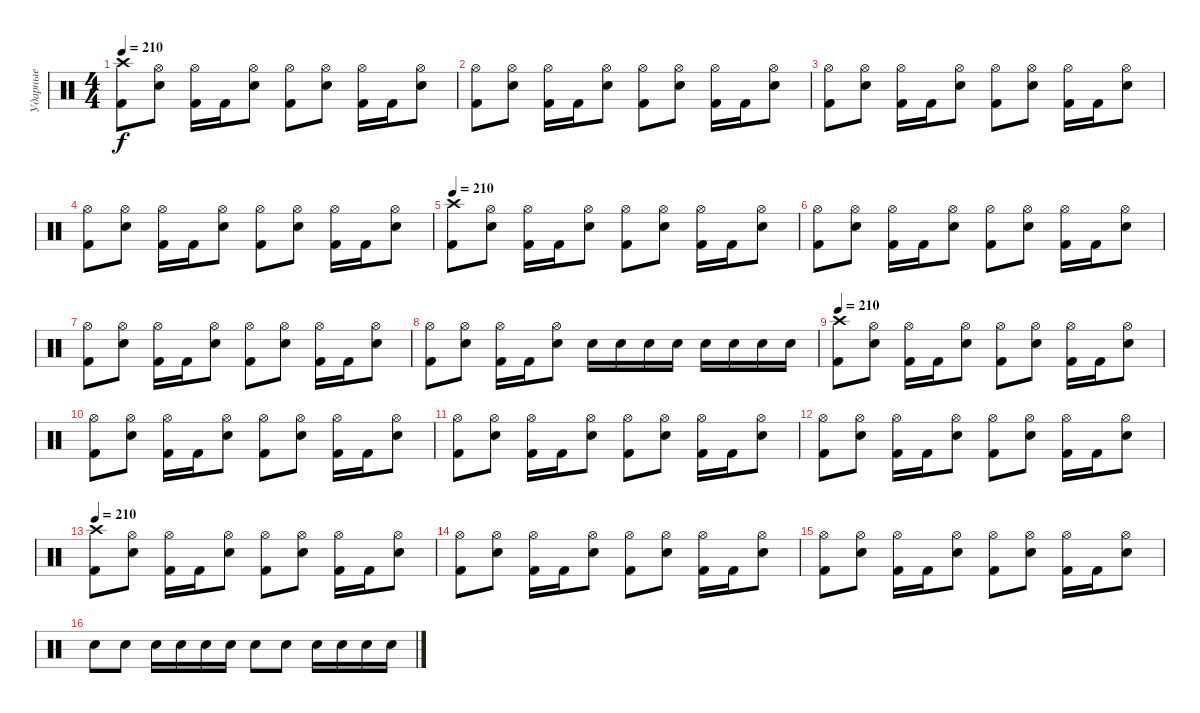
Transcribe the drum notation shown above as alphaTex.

\track ("Ударные" "Ударные") {instrument percussion}
\staff {score}
\articulation defaults
\ts (4 4)
\tempo 210
\clef neutral
\ks c
("Crash high (hit)" "Kick (hit) 2").8{dy f} ("Hi-Hat (open)" "Snare (hit) 2").8 ("Hi-Hat (open)" "Kick (hit) 2").16 "Kick (hit) 2".16 ("Hi-Hat (open)" "Snare (hit) 2").8 ("Hi-Hat (open)" "Kick (hit) 2").8 ("Hi-Hat (open)" "Snare (hit) 2").8 ("Hi-Hat (open)" "Kick (hit) 2").16 "Kick (hit) 2".16 ("Hi-Hat (open)" "Snare (hit) 2").8 |
("Hi-Hat (open)" "Kick (hit) 2").8 ("Hi-Hat (open)" "Snare (hit) 2").8 ("Hi-Hat (open)" "Kick (hit) 2").16 "Kick (hit) 2".16 ("Hi-Hat (open)" "Snare (hit) 2").8 ("Hi-Hat (open)" "Kick (hit) 2").8 ("Hi-Hat (open)" "Snare (hit) 2").8 ("Hi-Hat (open)" "Kick (hit) 2").16 "Kick (hit) 2".16 ("Hi-Hat (open)" "Snare (hit) 2").8 |
("Hi-Hat (open)" "Kick (hit) 2").8 ("Hi-Hat (open)" "Snare (hit) 2").8 ("Hi-Hat (open)" "Kick (hit) 2").16 "Kick (hit) 2".16 ("Hi-Hat (open)" "Snare (hit) 2").8 ("Hi-Hat (open)" "Kick (hit) 2").8 ("Hi-Hat (open)" "Snare (hit) 2").8 ("Hi-Hat (open)" "Kick (hit) 2").16 "Kick (hit) 2".16 ("Hi-Hat (open)" "Snare (hit) 2").8 |
("Hi-Hat (open)" "Kick (hit) 2").8 ("Hi-Hat (open)" "Snare (hit) 2").8 ("Hi-Hat (open)" "Kick (hit) 2").16 "Kick (hit) 2".16 ("Hi-Hat (open)" "Snare (hit) 2").8 ("Hi-Hat (open)" "Kick (hit) 2").8 ("Hi-Hat (open)" "Snare (hit) 2").8 ("Hi-Hat (open)" "Kick (hit) 2").16 "Kick (hit) 2".16 ("Hi-Hat (open)" "Snare (hit) 2").8 |
\tempo 210
("Crash high (hit)" "Kick (hit) 2").8 ("Hi-Hat (open)" "Snare (hit) 2").8 ("Hi-Hat (open)" "Kick (hit) 2").16 "Kick (hit) 2".16 ("Hi-Hat (open)" "Snare (hit) 2").8 ("Hi-Hat (open)" "Kick (hit) 2").8 ("Hi-Hat (open)" "Snare (hit) 2").8 ("Hi-Hat (open)" "Kick (hit) 2").16 "Kick (hit) 2".16 ("Hi-Hat (open)" "Snare (hit) 2").8 |
("Hi-Hat (open)" "Kick (hit) 2").8 ("Hi-Hat (open)" "Snare (hit) 2").8 ("Hi-Hat (open)" "Kick (hit) 2").16 "Kick (hit) 2".16 ("Hi-Hat (open)" "Snare (hit) 2").8 ("Hi-Hat (open)" "Kick (hit) 2").8 ("Hi-Hat (open)" "Snare (hit) 2").8 ("Hi-Hat (open)" "Kick (hit) 2").16 "Kick (hit) 2".16 ("Hi-Hat (open)" "Snare (hit) 2").8 |
("Hi-Hat (open)" "Kick (hit) 2").8 ("Hi-Hat (open)" "Snare (hit) 2").8 ("Hi-Hat (open)" "Kick (hit) 2").16 "Kick (hit) 2".16 ("Hi-Hat (open)" "Snare (hit) 2").8 ("Hi-Hat (open)" "Kick (hit) 2").8 ("Hi-Hat (open)" "Snare (hit) 2").8 ("Hi-Hat (open)" "Kick (hit) 2").16 "Kick (hit) 2".16 ("Hi-Hat (open)" "Snare (hit) 2").8 |
("Hi-Hat (open)" "Kick (hit) 2").8 ("Hi-Hat (open)" "Snare (hit) 2").8 ("Hi-Hat (open)" "Kick (hit) 2").16 "Kick (hit) 2".16 ("Hi-Hat (open)" "Snare (hit) 2").8 "Snare (hit) 2".16 "Snare (hit) 2".16 "Snare (hit) 2".16 "Snare (hit) 2".16 "Snare (hit) 2".16 "Snare (hit) 2".16 "Snare (hit) 2".16 "Snare (hit) 2".16 |
\tempo 210
("Crash high (hit)" "Kick (hit) 2").8 ("Hi-Hat (open)" "Snare (hit) 2").8 ("Hi-Hat (open)" "Kick (hit) 2").16 "Kick (hit) 2".16 ("Hi-Hat (open)" "Snare (hit) 2").8 ("Hi-Hat (open)" "Kick (hit) 2").8 ("Hi-Hat (open)" "Snare (hit) 2").8 ("Hi-Hat (open)" "Kick (hit) 2").16 "Kick (hit) 2".16 ("Hi-Hat (open)" "Snare (hit) 2").8 |
("Hi-Hat (open)" "Kick (hit) 2").8 ("Hi-Hat (open)" "Snare (hit) 2").8 ("Hi-Hat (open)" "Kick (hit) 2").16 "Kick (hit) 2".16 ("Hi-Hat (open)" "Snare (hit) 2").8 ("Hi-Hat (open)" "Kick (hit) 2").8 ("Hi-Hat (open)" "Snare (hit) 2").8 ("Hi-Hat (open)" "Kick (hit) 2").16 "Kick (hit) 2".16 ("Hi-Hat (open)" "Snare (hit) 2").8 |
("Hi-Hat (open)" "Kick (hit) 2").8 ("Hi-Hat (open)" "Snare (hit) 2").8 ("Hi-Hat (open)" "Kick (hit) 2").16 "Kick (hit) 2".16 ("Hi-Hat (open)" "Snare (hit) 2").8 ("Hi-Hat (open)" "Kick (hit) 2").8 ("Hi-Hat (open)" "Snare (hit) 2").8 ("Hi-Hat (open)" "Kick (hit) 2").16 "Kick (hit) 2".16 ("Hi-Hat (open)" "Snare (hit) 2").8 |
("Hi-Hat (open)" "Kick (hit) 2").8 ("Hi-Hat (open)" "Snare (hit) 2").8 ("Hi-Hat (open)" "Kick (hit) 2").16 "Kick (hit) 2".16 ("Hi-Hat (open)" "Snare (hit) 2").8 ("Hi-Hat (open)" "Kick (hit) 2").8 ("Hi-Hat (open)" "Snare (hit) 2").8 ("Hi-Hat (open)" "Kick (hit) 2").16 "Kick (hit) 2".16 ("Hi-Hat (open)" "Snare (hit) 2").8 |
\tempo 210
("Crash high (hit)" "Kick (hit) 2").8 ("Hi-Hat (open)" "Snare (hit) 2").8 ("Hi-Hat (open)" "Kick (hit) 2").16 "Kick (hit) 2".16 ("Hi-Hat (open)" "Snare (hit) 2").8 ("Hi-Hat (open)" "Kick (hit) 2").8 ("Hi-Hat (open)" "Snare (hit) 2").8 ("Hi-Hat (open)" "Kick (hit) 2").16 "Kick (hit) 2".16 ("Hi-Hat (open)" "Snare (hit) 2").8 |
("Hi-Hat (open)" "Kick (hit) 2").8 ("Hi-Hat (open)" "Snare (hit) 2").8 ("Hi-Hat (open)" "Kick (hit) 2").16 "Kick (hit) 2".16 ("Hi-Hat (open)" "Snare (hit) 2").8 ("Hi-Hat (open)" "Kick (hit) 2").8 ("Hi-Hat (open)" "Snare (hit) 2").8 ("Hi-Hat (open)" "Kick (hit) 2").16 "Kick (hit) 2".16 ("Hi-Hat (open)" "Snare (hit) 2").8 |
("Hi-Hat (open)" "Kick (hit) 2").8 ("Hi-Hat (open)" "Snare (hit) 2").8 ("Hi-Hat (open)" "Kick (hit) 2").16 "Kick (hit) 2".16 ("Hi-Hat (open)" "Snare (hit) 2").8 ("Hi-Hat (open)" "Kick (hit) 2").8 ("Hi-Hat (open)" "Snare (hit) 2").8 ("Hi-Hat (open)" "Kick (hit) 2").16 "Kick (hit) 2".16 ("Hi-Hat (open)" "Snare (hit) 2").8 |
"Snare (hit) 2".8 "Snare (hit) 2".8 "Snare (hit) 2".16 "Snare (hit) 2".16 "Snare (hit) 2".16 "Snare (hit) 2".16 "Snare (hit) 2".8 "Snare (hit) 2".8 "Snare (hit) 2".16 "Snare (hit) 2".16 "Snare (hit) 2".16 "Snare (hit) 2".16
